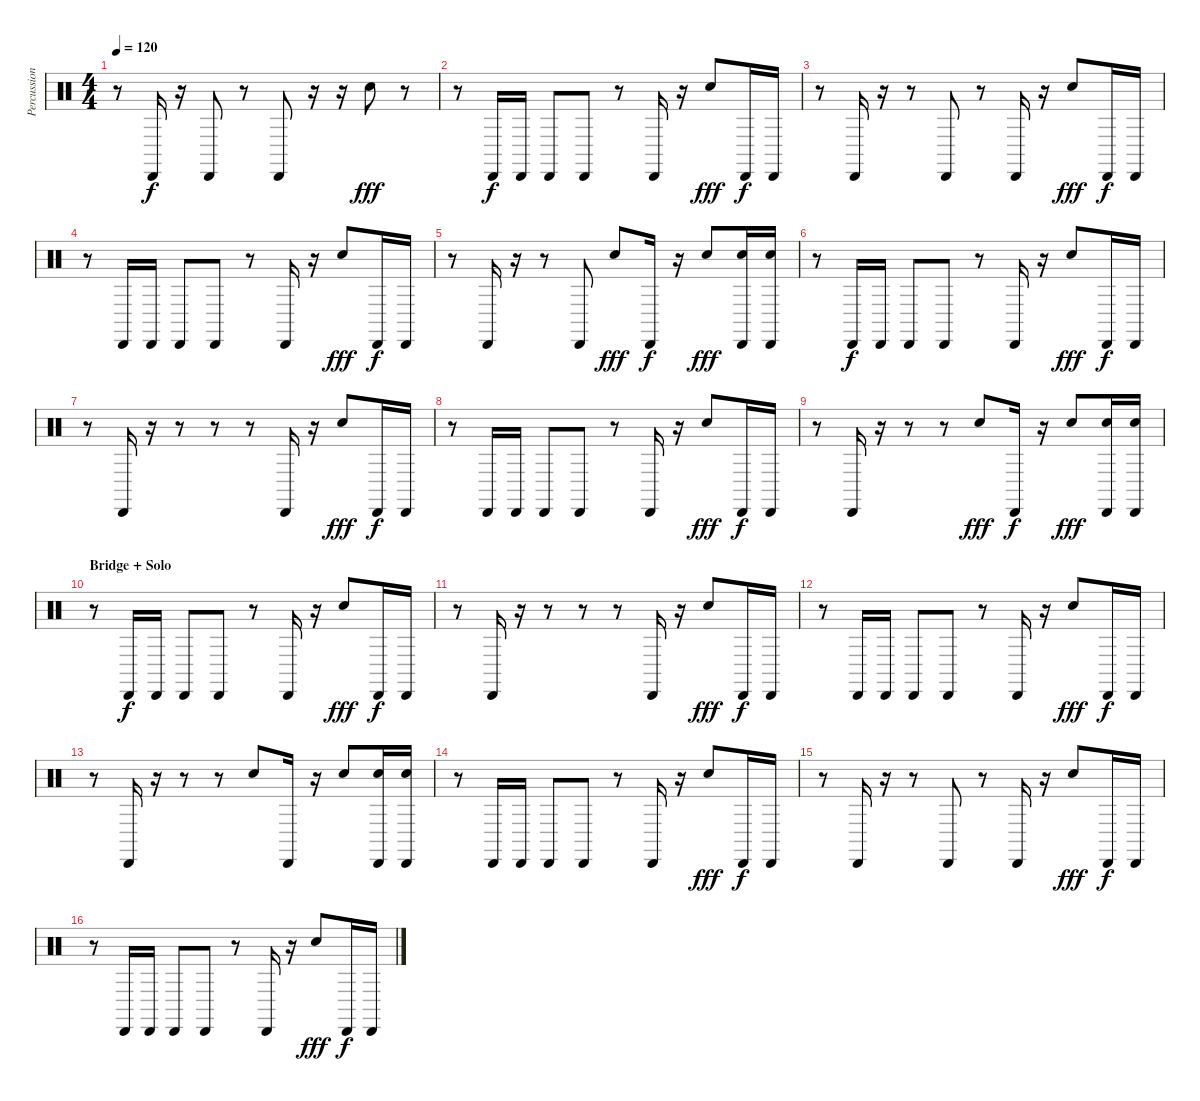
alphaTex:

\track ("Percussion" "Percussion") {instrument percussion}
\staff {score}
\articulation defaults
\ts (4 4)
\tempo 120
\clef neutral
\ks c
r.8{dy f} "Cabasa (hit)".16 r.16 "Cabasa (hit)".8 r.8 "Cabasa (hit)".8 r.16 r.16 "Hand Clap (hit)".8{dy fff} r.8 |
r.8 "Cabasa (hit)".16{dy f} "Cabasa (hit)".16 "Cabasa (hit)".8 "Cabasa (hit)".8 r.8 "Cabasa (hit)".16 r.16 "Hand Clap (hit)".8{dy fff} "Cabasa (hit)".16{dy f} "Cabasa (hit)".16 |
r.8 "Cabasa (hit)".16 r.16 r.8 "Cabasa (hit)".8 r.8 "Cabasa (hit)".16 r.16 "Hand Clap (hit)".8{dy fff} "Cabasa (hit)".16{dy f} "Cabasa (hit)".16 |
r.8 "Cabasa (hit)".16 "Cabasa (hit)".16 "Cabasa (hit)".8 "Cabasa (hit)".8 r.8 "Cabasa (hit)".16 r.16 "Hand Clap (hit)".8{dy fff} "Cabasa (hit)".16{dy f} "Cabasa (hit)".16 |
r.8 "Cabasa (hit)".16 r.16 r.8 "Cabasa (hit)".8 "Hand Clap (hit)".8{dy fff} "Cabasa (hit)".16{dy f} r.16 "Hand Clap (hit)".8{dy fff} ("Cabasa (hit)" "Hand Clap (hit)").16 ("Cabasa (hit)" "Hand Clap (hit)").16 |
r.8 "Cabasa (hit)".16{dy f} "Cabasa (hit)".16 "Cabasa (hit)".8 "Cabasa (hit)".8 r.8 "Cabasa (hit)".16 r.16 "Hand Clap (hit)".8{dy fff} "Cabasa (hit)".16{dy f} "Cabasa (hit)".16 |
r.8 "Cabasa (hit)".16 r.16 r.8 r.8 r.8 "Cabasa (hit)".16 r.16 "Hand Clap (hit)".8{dy fff} "Cabasa (hit)".16{dy f} "Cabasa (hit)".16 |
r.8 "Cabasa (hit)".16 "Cabasa (hit)".16 "Cabasa (hit)".8 "Cabasa (hit)".8 r.8 "Cabasa (hit)".16 r.16 "Hand Clap (hit)".8{dy fff} "Cabasa (hit)".16{dy f} "Cabasa (hit)".16 |
r.8 "Cabasa (hit)".16 r.16 r.8 r.8 "Hand Clap (hit)".8{dy fff} "Cabasa (hit)".16{dy f} r.16 "Hand Clap (hit)".8{dy fff} ("Cabasa (hit)" "Hand Clap (hit)").16 ("Cabasa (hit)" "Hand Clap (hit)").16 |
\section ("" "Bridge + Solo")
r.8 "Cabasa (hit)".16{dy f} "Cabasa (hit)".16 "Cabasa (hit)".8 "Cabasa (hit)".8 r.8 "Cabasa (hit)".16 r.16 "Hand Clap (hit)".8{dy fff} "Cabasa (hit)".16{dy f} "Cabasa (hit)".16 |
r.8 "Cabasa (hit)".16 r.16 r.8 r.8 r.8 "Cabasa (hit)".16 r.16 "Hand Clap (hit)".8{dy fff} "Cabasa (hit)".16{dy f} "Cabasa (hit)".16 |
r.8 "Cabasa (hit)".16 "Cabasa (hit)".16 "Cabasa (hit)".8 "Cabasa (hit)".8 r.8 "Cabasa (hit)".16 r.16 "Hand Clap (hit)".8{dy fff} "Cabasa (hit)".16{dy f} "Cabasa (hit)".16 |
r.8 "Cabasa (hit)".16 r.16 r.8 r.8 "Hand Clap (hit)".8 "Cabasa (hit)".16 r.16 "Hand Clap (hit)".8 ("Cabasa (hit)" "Hand Clap (hit)").16 ("Cabasa (hit)" "Hand Clap (hit)").16 |
r.8 "Cabasa (hit)".16 "Cabasa (hit)".16 "Cabasa (hit)".8 "Cabasa (hit)".8 r.8 "Cabasa (hit)".16 r.16 "Hand Clap (hit)".8{dy fff} "Cabasa (hit)".16{dy f} "Cabasa (hit)".16 |
r.8 "Cabasa (hit)".16 r.16 r.8 "Cabasa (hit)".8 r.8 "Cabasa (hit)".16 r.16 "Hand Clap (hit)".8{dy fff} "Cabasa (hit)".16{dy f} "Cabasa (hit)".16 |
r.8 "Cabasa (hit)".16 "Cabasa (hit)".16 "Cabasa (hit)".8 "Cabasa (hit)".8 r.8 "Cabasa (hit)".16 r.16 "Hand Clap (hit)".8{dy fff} "Cabasa (hit)".16{dy f} "Cabasa (hit)".16
